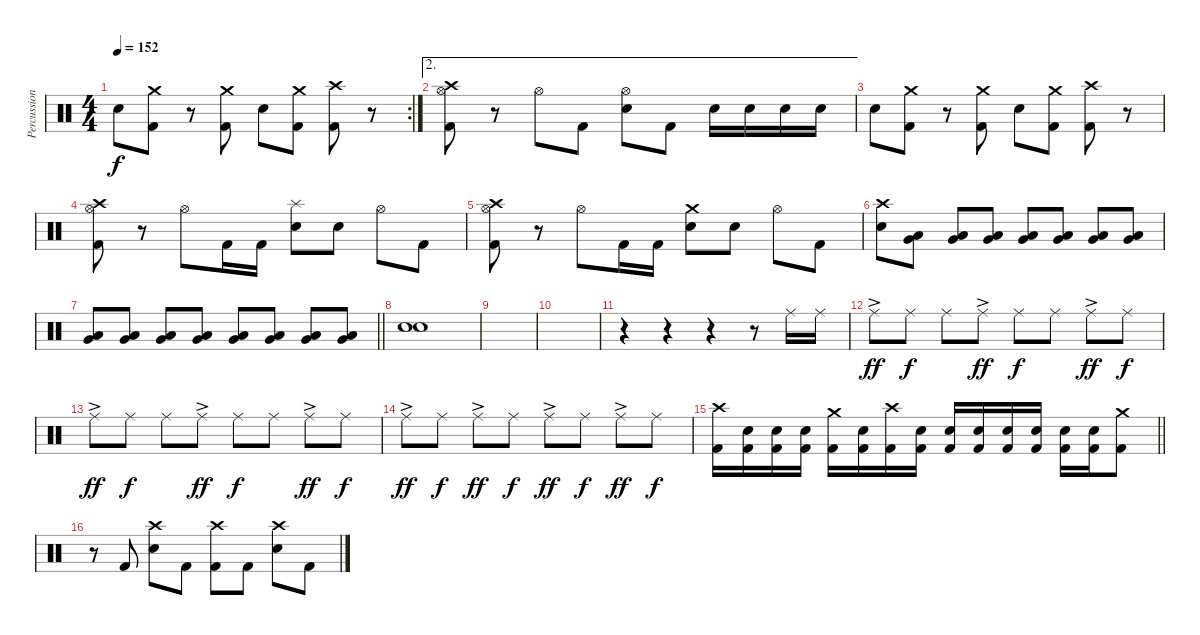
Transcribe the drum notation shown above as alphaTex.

\track ("Percussion" "Percussion") {instrument percussion}
\staff {score}
\articulation defaults
\rc 2
\ts (4 4)
\tempo 152
\clef neutral
\ks c "Snare (hit) 2".8{dy f}
("Crash medium (hit)" "Kick (hit) 2").8 r.8 ("Crash medium (hit)" "Kick (hit) 2").8 "Snare (hit) 2".8 ("Crash medium (hit)" "Kick (hit) 2").8 ("Crash high (hit)" "Kick (hit) 2").8 r.8 |
\ae 2
("Crash high (hit)" "Hi-Hat (open)" "Kick (hit) 2").8 r.8 "Hi-Hat (open)".8 "Kick (hit) 2".8 ("Snare (hit) 2" "Hi-Hat (open)").8 "Kick (hit) 2".8 "Snare (hit) 2".16 "Snare (hit) 2".16 "Snare (hit) 2".16 "Snare (hit) 2".16 |
"Snare (hit) 2".8 ("Crash medium (hit)" "Kick (hit) 2").8 r.8 ("Crash medium (hit)" "Kick (hit) 2").8 "Snare (hit) 2".8 ("Crash medium (hit)" "Kick (hit) 2").8 ("Crash high (hit)" "Kick (hit) 2").8 r.8 |
("Crash high (hit)" "Hi-Hat (open)" "Kick (hit) 2").8 r.8 "Hi-Hat (open)".8 "Kick (hit) 2".16 "Kick (hit) 2".16 ("Splash (hit)" "Snare (hit) 2").8 "Snare (hit) 2".8 "Hi-Hat (open)".8 "Kick (hit) 2".8 |
("Crash high (hit)" "Hi-Hat (open)" "Kick (hit) 2").8 r.8 "Hi-Hat (open)".8 "Kick (hit) 2".16 "Kick (hit) 2".16 ("Crash medium (hit)" "Snare (hit) 2").8 "Snare (hit) 2".8 "Hi-Hat (open)".8 "Kick (hit) 2".8 |
("Crash high (hit)" "Snare (hit) 2").8 ("Low Tom (hit)" "Very Low Tom (hit)").8 ("Low Tom (hit)" "Very Low Tom (hit)").8 ("Low Tom (hit)" "Very Low Tom (hit)").8 ("Low Tom (hit)" "Very Low Tom (hit)").8 ("Low Tom (hit)" "Very Low Tom (hit)").8 ("Low Tom (hit)" "Very Low Tom (hit)").8 ("Low Tom (hit)" "Very Low Tom (hit)").8 |
\barLineRight lightlight
("Low Tom (hit)" "Very Low Tom (hit)").8 ("Low Tom (hit)" "Very Low Tom (hit)").8 ("Low Tom (hit)" "Very Low Tom (hit)").8 ("Low Tom (hit)" "Very Low Tom (hit)").8 ("Low Tom (hit)" "Very Low Tom (hit)").8 ("Low Tom (hit)" "Very Low Tom (hit)").8 ("Low Tom (hit)" "Very Low Tom (hit)").8 ("Low Tom (hit)" "Very Low Tom (hit)").8 |
("Snare (hit) 2" "Snare (hit) 2").1 |
|
|
r.4 r.4 r.4 r.8 "Ride (middle)".16 "Ride (middle)".16 |
"Ride (middle)"{ac}.8{dy ff} "Ride (middle)".8{dy f} "Ride (middle)".8 "Ride (middle)"{ac}.8{dy ff} "Ride (middle)".8{dy f} "Ride (middle)".8 "Ride (middle)"{ac}.8{dy ff} "Ride (middle)".8{dy f} |
"Ride (middle)"{ac}.8{dy ff} "Ride (middle)".8{dy f} "Ride (middle)".8 "Ride (middle)"{ac}.8{dy ff} "Ride (middle)".8{dy f} "Ride (middle)".8 "Ride (middle)"{ac}.8{dy ff} "Ride (middle)".8{dy f} |
"Ride (middle)"{ac}.8{dy ff} "Ride (middle)".8{dy f} "Ride (middle)"{ac}.8{dy ff} "Ride (middle)".8{dy f} "Ride (middle)"{ac}.8{dy ff} "Ride (middle)".8{dy f} "Ride (middle)"{ac}.8{dy ff} "Ride (middle)".8{dy f} |
\barLineRight lightlight
("Crash high (hit)" "Kick (hit) 2").16 ("Snare (hit) 2" "Kick (hit) 2").16 ("Snare (hit) 2" "Kick (hit) 2").16 ("Snare (hit) 2" "Kick (hit) 2").16 ("Crash medium (hit)" "Kick (hit) 2").16 ("Snare (hit) 2" "Kick (hit) 2").16 ("Crash high (hit)" "Kick (hit) 2").16 ("Snare (hit) 2" "Kick (hit) 2").16 ("Snare (hit) 2" "Kick (hit) 2").16 ("Snare (hit) 2" "Kick (hit) 2").16 ("Snare (hit) 2" "Kick (hit) 2").16 ("Snare (hit) 2" "Kick (hit) 2").16 ("Snare (hit) 2" "Kick (hit) 2").16 ("Snare (hit) 2" "Kick (hit) 2").16 ("Crash medium (hit)" "Kick (hit) 2").8 |
r.8 "Kick (hit) 2".8 ("Crash high (hit)" "Snare (hit) 2").8 "Kick (hit) 2".8 ("Crash high (hit)" "Kick (hit) 2").8 "Kick (hit) 2".8 ("Crash high (hit)" "Snare (hit) 2").8 "Kick (hit) 2".8
